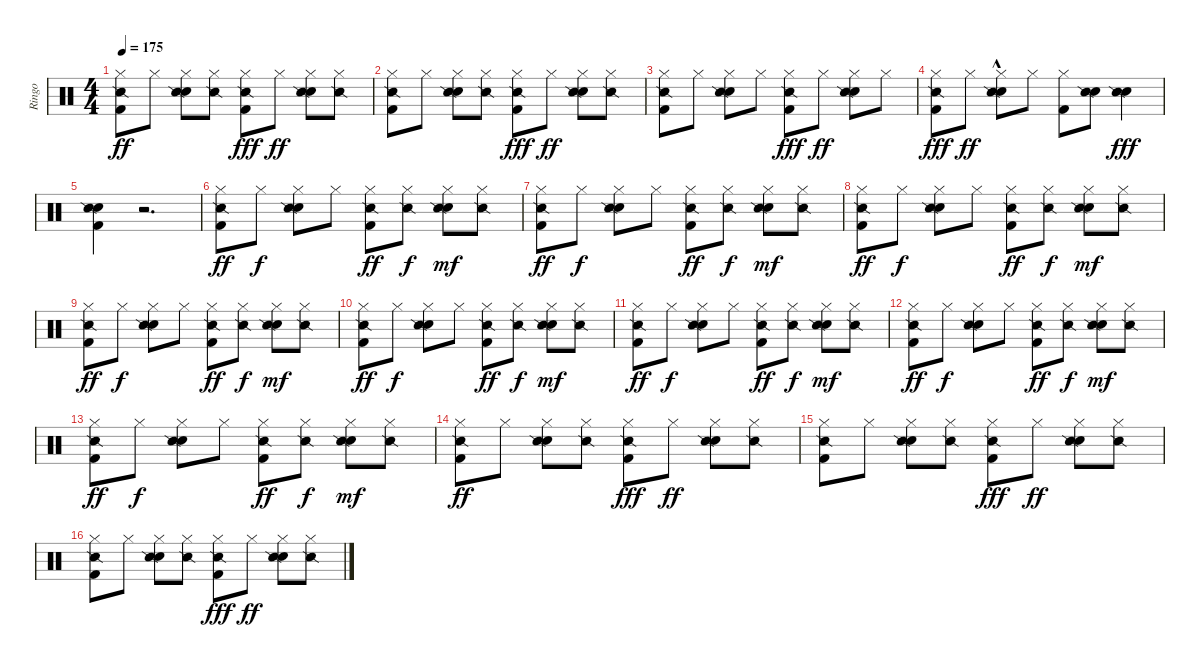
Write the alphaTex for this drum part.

\track ("Ringo" "Ringo") {instrument percussion}
\staff {score}
\articulation defaults
\ts (4 4)
\tempo 175
\clef neutral
\ks c
("Hi-Hat (closed)" "Snare (side stick) 2" "Kick (hit) 2").8{dy ff} "Hi-Hat (closed)".8 ("Hi-Hat (closed)" "Electric Snare (hit)" "Snare (side stick) 2").8 ("Hi-Hat (closed)" "Snare (side stick) 2").8 ("Hi-Hat (closed)" "Snare (side stick) 2" "Kick (hit) 2").8{dy fff} "Hi-Hat (closed)".8{dy ff} ("Hi-Hat (closed)" "Electric Snare (hit)" "Snare (side stick) 2").8 ("Hi-Hat (closed)" "Snare (side stick) 2").8 |
("Hi-Hat (closed)" "Snare (side stick) 2" "Kick (hit) 2").8 "Hi-Hat (closed)".8 ("Hi-Hat (closed)" "Electric Snare (hit)" "Snare (side stick) 2").8 ("Hi-Hat (closed)" "Snare (side stick) 2").8 ("Hi-Hat (closed)" "Snare (side stick) 2" "Kick (hit) 2").8{dy fff} "Hi-Hat (closed)".8{dy ff} ("Hi-Hat (closed)" "Electric Snare (hit)" "Snare (side stick) 2").8 ("Hi-Hat (closed)" "Snare (side stick) 2").8 |
("Hi-Hat (closed)" "Snare (side stick) 2" "Kick (hit) 2").8 "Hi-Hat (closed)".8 ("Hi-Hat (closed)" "Electric Snare (hit)" "Snare (side stick) 2").8 "Hi-Hat (closed)".8 ("Hi-Hat (closed)" "Snare (side stick) 2" "Kick (hit) 2").8{dy fff} "Hi-Hat (closed)".8{dy ff} ("Hi-Hat (closed)" "Electric Snare (hit)" "Snare (side stick) 2").8 "Hi-Hat (closed)".8 |
("Hi-Hat (closed)" "Snare (side stick) 2" "Kick (hit) 2").8{dy fff} "Hi-Hat (closed)".8{dy ff} ("Hi-Hat (closed)" "Electric Snare (hit)"{hac} "Snare (side stick) 2").8 "Hi-Hat (closed)".8 ("Hi-Hat (closed)" "Kick (hit) 2").8 ("Electric Snare (hit)" "Snare (side stick) 2").8 ("Electric Snare (hit)" "Snare (side stick) 2").4{dy fff} |
("Electric Snare (hit)" "Snare (side stick) 2" "Kick (hit) 2").4 r.2{d} |
("Hi-Hat (closed)" "Snare (side stick) 2" "Kick (hit) 2").8{dy ff} "Hi-Hat (closed)".8{dy f} ("Hi-Hat (closed)" "Electric Snare (hit)" "Snare (side stick) 2").8 "Hi-Hat (closed)".8 ("Hi-Hat (closed)" "Snare (side stick) 2" "Kick (hit) 2").8{dy ff} ("Hi-Hat (closed)" "Snare (side stick) 2").8{dy f} ("Hi-Hat (closed)" "Electric Snare (hit)" "Snare (side stick) 2").8{dy mf} ("Hi-Hat (closed)" "Snare (side stick) 2").8 |
("Hi-Hat (closed)" "Snare (side stick) 2" "Kick (hit) 2").8{dy ff} "Hi-Hat (closed)".8{dy f} ("Hi-Hat (closed)" "Electric Snare (hit)" "Snare (side stick) 2").8 "Hi-Hat (closed)".8 ("Hi-Hat (closed)" "Snare (side stick) 2" "Kick (hit) 2").8{dy ff} ("Hi-Hat (closed)" "Snare (side stick) 2").8{dy f} ("Hi-Hat (closed)" "Electric Snare (hit)" "Snare (side stick) 2").8{dy mf} ("Hi-Hat (closed)" "Snare (side stick) 2").8 |
("Hi-Hat (closed)" "Snare (side stick) 2" "Kick (hit) 2").8{dy ff} "Hi-Hat (closed)".8{dy f} ("Hi-Hat (closed)" "Electric Snare (hit)" "Snare (side stick) 2").8 "Hi-Hat (closed)".8 ("Hi-Hat (closed)" "Snare (side stick) 2" "Kick (hit) 2").8{dy ff} ("Hi-Hat (closed)" "Snare (side stick) 2").8{dy f} ("Hi-Hat (closed)" "Electric Snare (hit)" "Snare (side stick) 2").8{dy mf} ("Hi-Hat (closed)" "Snare (side stick) 2").8 |
("Hi-Hat (closed)" "Snare (side stick) 2" "Kick (hit) 2").8{dy ff} "Hi-Hat (closed)".8{dy f} ("Hi-Hat (closed)" "Electric Snare (hit)" "Snare (side stick) 2").8 "Hi-Hat (closed)".8 ("Hi-Hat (closed)" "Snare (side stick) 2" "Kick (hit) 2").8{dy ff} ("Hi-Hat (closed)" "Snare (side stick) 2").8{dy f} ("Hi-Hat (closed)" "Electric Snare (hit)" "Snare (side stick) 2").8{dy mf} ("Hi-Hat (closed)" "Snare (side stick) 2").8 |
("Hi-Hat (closed)" "Snare (side stick) 2" "Kick (hit) 2").8{dy ff} "Hi-Hat (closed)".8{dy f} ("Hi-Hat (closed)" "Electric Snare (hit)" "Snare (side stick) 2").8 "Hi-Hat (closed)".8 ("Hi-Hat (closed)" "Snare (side stick) 2" "Kick (hit) 2").8{dy ff} ("Hi-Hat (closed)" "Snare (side stick) 2").8{dy f} ("Hi-Hat (closed)" "Electric Snare (hit)" "Snare (side stick) 2").8{dy mf} ("Hi-Hat (closed)" "Snare (side stick) 2").8 |
("Hi-Hat (closed)" "Snare (side stick) 2" "Kick (hit) 2").8{dy ff} "Hi-Hat (closed)".8{dy f} ("Hi-Hat (closed)" "Electric Snare (hit)" "Snare (side stick) 2").8 "Hi-Hat (closed)".8 ("Hi-Hat (closed)" "Snare (side stick) 2" "Kick (hit) 2").8{dy ff} ("Hi-Hat (closed)" "Snare (side stick) 2").8{dy f} ("Hi-Hat (closed)" "Electric Snare (hit)" "Snare (side stick) 2").8{dy mf} ("Hi-Hat (closed)" "Snare (side stick) 2").8 |
("Hi-Hat (closed)" "Snare (side stick) 2" "Kick (hit) 2").8{dy ff} "Hi-Hat (closed)".8{dy f} ("Hi-Hat (closed)" "Electric Snare (hit)" "Snare (side stick) 2").8 "Hi-Hat (closed)".8 ("Hi-Hat (closed)" "Snare (side stick) 2" "Kick (hit) 2").8{dy ff} ("Hi-Hat (closed)" "Snare (side stick) 2").8{dy f} ("Hi-Hat (closed)" "Electric Snare (hit)" "Snare (side stick) 2").8{dy mf} ("Hi-Hat (closed)" "Snare (side stick) 2").8 |
("Hi-Hat (closed)" "Snare (side stick) 2" "Kick (hit) 2").8{dy ff} "Hi-Hat (closed)".8{dy f} ("Hi-Hat (closed)" "Electric Snare (hit)" "Snare (side stick) 2").8 "Hi-Hat (closed)".8 ("Hi-Hat (closed)" "Snare (side stick) 2" "Kick (hit) 2").8{dy ff} ("Hi-Hat (closed)" "Snare (side stick) 2").8{dy f} ("Hi-Hat (closed)" "Electric Snare (hit)" "Snare (side stick) 2").8{dy mf} ("Hi-Hat (closed)" "Snare (side stick) 2").8 |
("Hi-Hat (closed)" "Snare (side stick) 2" "Kick (hit) 2").8{dy ff} "Hi-Hat (closed)".8 ("Hi-Hat (closed)" "Electric Snare (hit)" "Snare (side stick) 2").8 ("Hi-Hat (closed)" "Snare (side stick) 2").8 ("Hi-Hat (closed)" "Snare (side stick) 2" "Kick (hit) 2").8{dy fff} "Hi-Hat (closed)".8{dy ff} ("Hi-Hat (closed)" "Electric Snare (hit)" "Snare (side stick) 2").8 ("Hi-Hat (closed)" "Snare (side stick) 2").8 |
("Hi-Hat (closed)" "Snare (side stick) 2" "Kick (hit) 2").8 "Hi-Hat (closed)".8 ("Hi-Hat (closed)" "Electric Snare (hit)" "Snare (side stick) 2").8 ("Hi-Hat (closed)" "Snare (side stick) 2").8 ("Hi-Hat (closed)" "Snare (side stick) 2" "Kick (hit) 2").8{dy fff} "Hi-Hat (closed)".8{dy ff} ("Hi-Hat (closed)" "Electric Snare (hit)" "Snare (side stick) 2").8 ("Hi-Hat (closed)" "Snare (side stick) 2").8 |
("Hi-Hat (closed)" "Snare (side stick) 2" "Kick (hit) 2").8 "Hi-Hat (closed)".8 ("Hi-Hat (closed)" "Electric Snare (hit)" "Snare (side stick) 2").8 ("Hi-Hat (closed)" "Snare (side stick) 2").8 ("Hi-Hat (closed)" "Snare (side stick) 2" "Kick (hit) 2").8{dy fff} "Hi-Hat (closed)".8{dy ff} ("Hi-Hat (closed)" "Electric Snare (hit)" "Snare (side stick) 2").8 ("Hi-Hat (closed)" "Snare (side stick) 2").8
